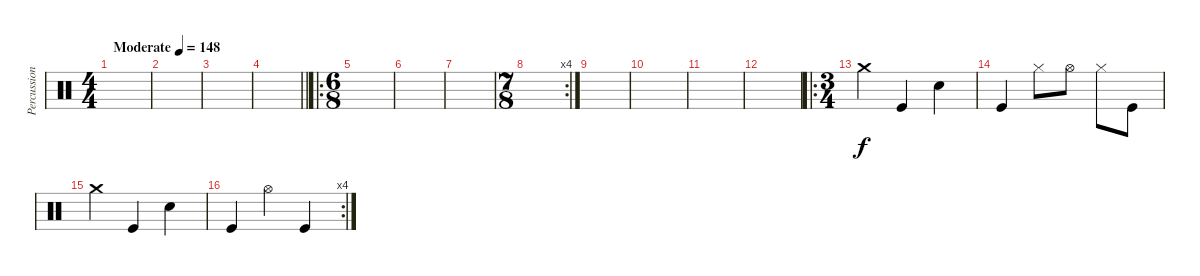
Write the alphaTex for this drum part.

\track ("Percussions" "Percussion") {instrument percussion}
\staff {score}
\articulation defaults
\ts (4 4)
\tempo (148 "Moderate")
\clef neutral
\ks c
|
|
|
\barLineRight lightlight
|
\ro
\ts (6 8)
\section ("" "")
|
|
|
\rc 4
\ts (7 8)
|
|
|
|
|
\ro
\ts (3 4)
"Crash medium (hit)".4 "Kick (hit)".4 "Electric Snare (hit)".4 |
"Kick (hit)".4 "Hi-Hat (closed)".8 "Hi-Hat (open)".8 "Hi-Hat (closed)".8 "Kick (hit)".8 |
"Crash medium (hit)".4 "Kick (hit)".4 "Electric Snare (hit)".4 |
\rc 4 "Kick (hit)".4 "Hi-Hat (open)".4 "Kick (hit)".4
